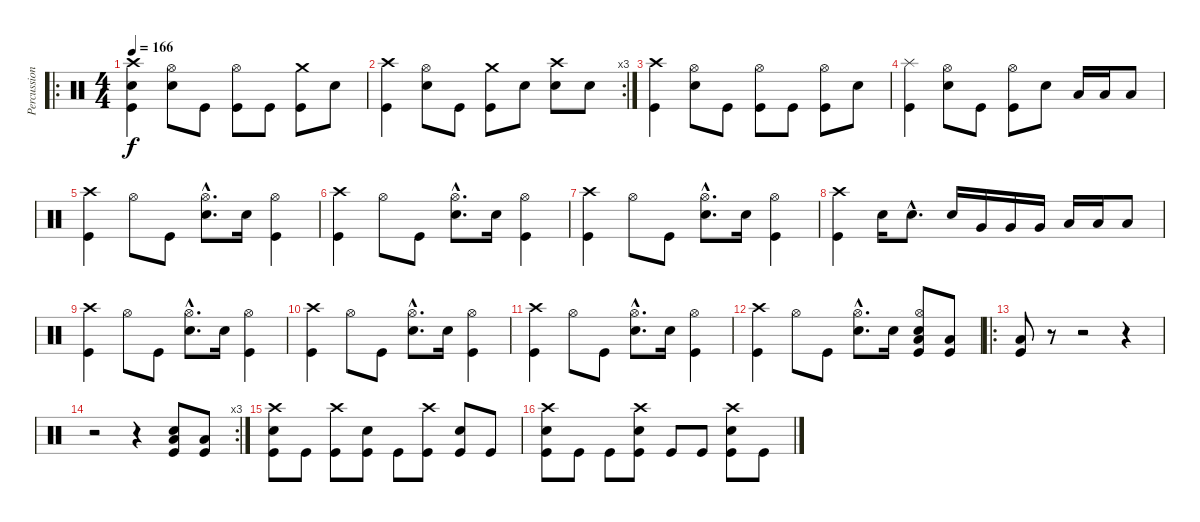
\track ("Percussions" "Percussion") {instrument percussion}
\staff {score}
\articulation defaults
\ro
\ts (4 4)
\tempo 166
\clef neutral
\ks c
("Crash high (hit)" "Snare (hit) 2" "Kick (hit)").4{dy f} ("Hi-Hat (open)" "Snare (hit) 2").8 "Kick (hit)".8 ("Hi-Hat (open)" "Kick (hit)").8 "Kick (hit)".8 ("Crash medium (hit)" "Kick (hit)").8 "Snare (hit) 2".8 |
\rc 3
("Crash high (hit)" "Kick (hit)").4 ("Hi-Hat (open)" "Snare (hit) 2").8 "Kick (hit)".8 ("Crash medium (hit)" "Kick (hit)").8 "Snare (hit) 2".8 ("Crash high (hit)" "Snare (hit) 2").8 "Snare (hit) 2".8 |
("Crash high (hit)" "Kick (hit)").4 ("Hi-Hat (open)" "Snare (hit) 2").8 "Kick (hit)".8 ("Hi-Hat (open)" "Kick (hit)").8 "Kick (hit)".8 ("Hi-Hat (open)" "Kick (hit)").8 "Snare (hit) 2".8 |
("Splash (hit)" "Kick (hit)").4 ("Hi-Hat (open)" "Snare (hit) 2").8 "Kick (hit)".8 ("Hi-Hat (open)" "Kick (hit)").8 "Snare (hit) 2".8 "Low Floor Tom (hit)".16 "Low Floor Tom (hit)".16 "Low Floor Tom (hit)".8 |
("Crash high (hit)" "Kick (hit)").4 "Hi-Hat (open)".8 "Kick (hit)".8 ("Hi-Hat (open)"{hac} "Snare (hit) 2"{hac}).8{d} "Snare (hit) 2".16 ("Hi-Hat (open)" "Kick (hit)").4 |
("Crash high (hit)" "Kick (hit)").4 "Hi-Hat (open)".8 "Kick (hit)".8 ("Hi-Hat (open)"{hac} "Snare (hit) 2"{hac}).8{d} "Snare (hit) 2".16 ("Hi-Hat (open)" "Kick (hit)").4 |
("Crash high (hit)" "Kick (hit)").4 "Hi-Hat (open)".8 "Kick (hit)".8 ("Hi-Hat (open)"{hac} "Snare (hit) 2"{hac}).8{d} "Snare (hit) 2".16 ("Hi-Hat (open)" "Kick (hit)").4 |
("Crash high (hit)" "Kick (hit)").4 "Snare (hit) 2".16 "Snare (hit) 2"{hac}.8{d} "Snare (hit) 2".16 "Very Low Tom (hit)".16 "Very Low Tom (hit)".16 "Very Low Tom (hit)".16 "Low Floor Tom (hit)".16 "Low Floor Tom (hit)".16 "Low Floor Tom (hit)".8 |
("Crash high (hit)" "Kick (hit)").4 "Hi-Hat (open)".8 "Kick (hit)".8 ("Hi-Hat (open)"{hac} "Snare (hit) 2"{hac}).8{d} "Snare (hit) 2".16 ("Hi-Hat (open)" "Kick (hit)").4 |
("Crash high (hit)" "Kick (hit)").4 "Hi-Hat (open)".8 "Kick (hit)".8 ("Hi-Hat (open)"{hac} "Snare (hit) 2"{hac}).8{d} "Snare (hit) 2".16 ("Hi-Hat (open)" "Kick (hit)").4 |
("Crash high (hit)" "Kick (hit)").4 "Hi-Hat (open)".8 "Kick (hit)".8 ("Hi-Hat (open)"{hac} "Snare (hit) 2"{hac}).8{d} "Snare (hit) 2".16 ("Hi-Hat (open)" "Kick (hit)").4 |
("Crash high (hit)" "Kick (hit)").4 "Hi-Hat (open)".8 "Kick (hit)".8 ("Hi-Hat (open)"{hac} "Snare (hit) 2"{hac}).8{d} "Snare (hit) 2".16 ("Hi-Hat (open)" "Snare (hit) 2" "Low Floor Tom (hit)" "Kick (hit)").8 ("Low Floor Tom (hit)" "Kick (hit)").8 |
\ro
("Low Floor Tom (hit)" "Kick (hit)").8 r.8 r.2 r.4 |
\rc 3
r.2 r.4 ("Snare (hit) 2" "Low Floor Tom (hit)" "Kick (hit)").8 ("Low Floor Tom (hit)" "Kick (hit)").8 |
("Crash high (hit)" "Snare (hit) 2" "Kick (hit)").8 "Kick (hit)".8 ("Crash high (hit)" "Kick (hit)").8 ("Snare (hit) 2" "Kick (hit)").8 "Kick (hit)".8 ("Crash high (hit)" "Kick (hit)").8 ("Snare (hit) 2" "Kick (hit)").8 "Kick (hit)".8 |
("Crash high (hit)" "Snare (hit) 2" "Kick (hit)").8 "Kick (hit)".8 "Kick (hit)".8 ("Crash high (hit)" "Snare (hit) 2" "Kick (hit)").8 "Kick (hit)".8 "Kick (hit)".8 ("Crash high (hit)" "Snare (hit) 2" "Kick (hit)").8 "Kick (hit)".8
